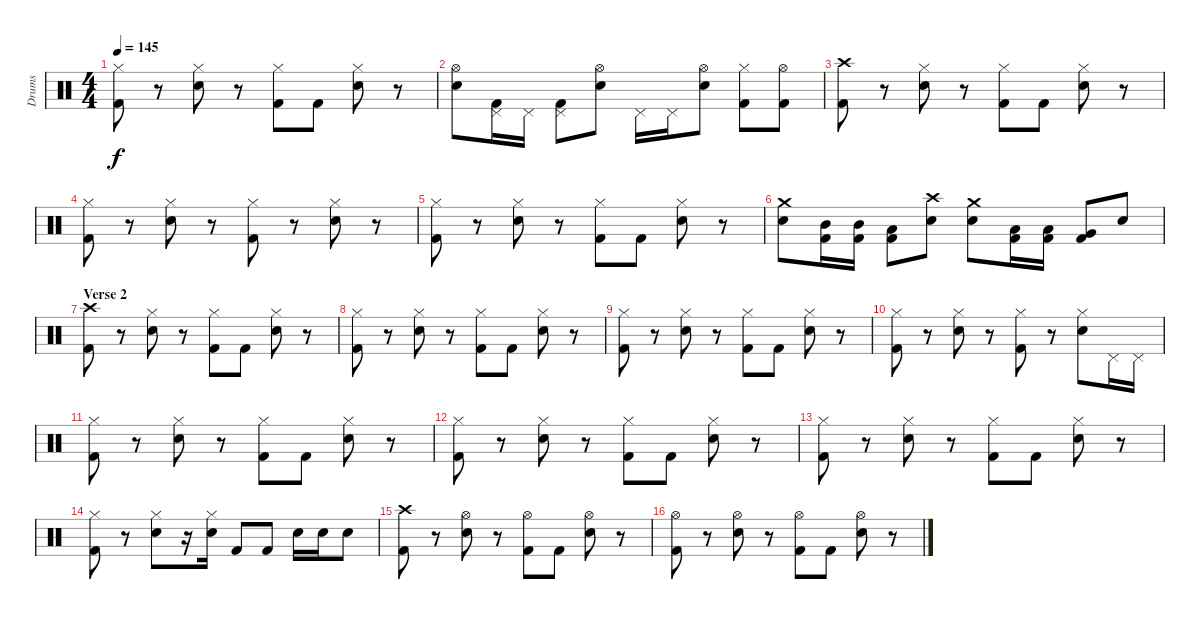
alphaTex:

\track ("Drums" "Drums") {instrument percussion}
\staff {score}
\articulation defaults
\ts (4 4)
\tempo 145
\clef neutral
\ks c
("Hi-Hat (closed)" "Kick (hit) 2").8{dy f} r.8 ("Hi-Hat (closed)" "Snare (hit) 2").8 r.8 ("Hi-Hat (closed)" "Kick (hit) 2").8 "Kick (hit) 2".8 ("Hi-Hat (closed)" "Snare (hit) 2").8 r.8 |
("Hi-Hat (open)" "Snare (hit) 2").8 ("Pedal Hi-Hat (hit)" "Kick (hit) 2").16 "Pedal Hi-Hat (hit)".16 ("Pedal Hi-Hat (hit)" "Kick (hit) 2").8 ("Hi-Hat (open)" "Snare (hit) 2").8 "Pedal Hi-Hat (hit)".16 "Pedal Hi-Hat (hit)".16 ("Hi-Hat (open)" "Snare (hit) 2").8 ("Hi-Hat (closed)" "Kick (hit) 2").8 ("Hi-Hat (open)" "Kick (hit) 2").8 |
("Crash high (hit)" "Kick (hit) 2").8 r.8 ("Hi-Hat (closed)" "Snare (hit) 2").8 r.8 ("Hi-Hat (closed)" "Kick (hit) 2").8 "Kick (hit) 2".8 ("Hi-Hat (closed)" "Snare (hit) 2").8 r.8 |
("Hi-Hat (closed)" "Kick (hit) 2").8 r.8 ("Hi-Hat (closed)" "Snare (hit) 2").8 r.8 ("Hi-Hat (closed)" "Kick (hit) 2").8 r.8 ("Hi-Hat (closed)" "Snare (hit) 2").8 r.8 |
("Hi-Hat (closed)" "Kick (hit) 2").8 r.8 ("Hi-Hat (closed)" "Snare (hit) 2").8 r.8 ("Hi-Hat (closed)" "Kick (hit) 2").8 "Kick (hit) 2".8 ("Hi-Hat (closed)" "Snare (hit) 2").8 r.8 |
("Crash medium (hit)" "Snare (hit) 2").8 ("Mid Tom (hit)" "Kick (hit) 2").16 ("Mid Tom (hit)" "Kick (hit) 2").16 ("Low Tom (hit)" "Kick (hit) 2").8 ("Crash high (hit)" "Snare (hit) 2").8 ("Crash medium (hit)" "Snare (hit) 2").8 ("Low Tom (hit)" "Kick (hit) 2").16 ("Low Tom (hit)" "Kick (hit) 2").16 ("Very Low Tom (hit)" "Kick (hit) 2").8 "Snare (hit) 2".8 |
\section ("" "Verse 2")
("Crash high (hit)" "Kick (hit) 2").8 r.8 ("Hi-Hat (closed)" "Snare (hit) 2").8 r.8 ("Hi-Hat (closed)" "Kick (hit) 2").8 "Kick (hit) 2".8 ("Hi-Hat (closed)" "Snare (hit) 2").8 r.8 |
("Hi-Hat (closed)" "Kick (hit) 2").8 r.8 ("Hi-Hat (closed)" "Snare (hit) 2").8 r.8 ("Hi-Hat (closed)" "Kick (hit) 2").8 "Kick (hit) 2".8 ("Hi-Hat (closed)" "Snare (hit) 2").8 r.8 |
("Hi-Hat (closed)" "Kick (hit) 2").8 r.8 ("Hi-Hat (closed)" "Snare (hit) 2").8 r.8 ("Hi-Hat (closed)" "Kick (hit) 2").8 "Kick (hit) 2".8 ("Hi-Hat (closed)" "Snare (hit) 2").8 r.8 |
("Hi-Hat (closed)" "Kick (hit) 2").8 r.8 ("Hi-Hat (closed)" "Snare (hit) 2").8 r.8 ("Hi-Hat (closed)" "Kick (hit) 2").8 r.8 ("Hi-Hat (closed)" "Snare (hit) 2").8 "Pedal Hi-Hat (hit)".16 "Pedal Hi-Hat (hit)".16 |
("Hi-Hat (closed)" "Kick (hit) 2").8 r.8 ("Hi-Hat (closed)" "Snare (hit) 2").8 r.8 ("Hi-Hat (closed)" "Kick (hit) 2").8 "Kick (hit) 2".8 ("Hi-Hat (closed)" "Snare (hit) 2").8 r.8 |
("Hi-Hat (closed)" "Kick (hit) 2").8 r.8 ("Hi-Hat (closed)" "Snare (hit) 2").8 r.8 ("Hi-Hat (closed)" "Kick (hit) 2").8 "Kick (hit) 2".8 ("Hi-Hat (closed)" "Snare (hit) 2").8 r.8 |
("Hi-Hat (closed)" "Kick (hit) 2").8 r.8 ("Hi-Hat (closed)" "Snare (hit) 2").8 r.8 ("Hi-Hat (closed)" "Kick (hit) 2").8 "Kick (hit) 2".8 ("Hi-Hat (closed)" "Snare (hit) 2").8 r.8 |
("Hi-Hat (closed)" "Kick (hit) 2").8 r.8 ("Hi-Hat (closed)" "Snare (hit) 2").8 r.16 ("Hi-Hat (closed)" "Snare (hit) 2").16 "Kick (hit) 2".8 "Kick (hit) 2".8 "Snare (hit) 2".16 "Snare (hit) 2".16 "Snare (hit) 2".8 |
("Crash high (hit)" "Kick (hit) 2").8 r.8 ("Hi-Hat (open)" "Snare (hit) 2").8 r.8 ("Hi-Hat (open)" "Kick (hit) 2").8 "Kick (hit) 2".8 ("Hi-Hat (open)" "Snare (hit) 2").8 r.8 |
("Hi-Hat (open)" "Kick (hit) 2").8 r.8 ("Hi-Hat (open)" "Snare (hit) 2").8 r.8 ("Hi-Hat (open)" "Kick (hit) 2").8 "Kick (hit) 2".8 ("Hi-Hat (open)" "Snare (hit) 2").8 r.8
